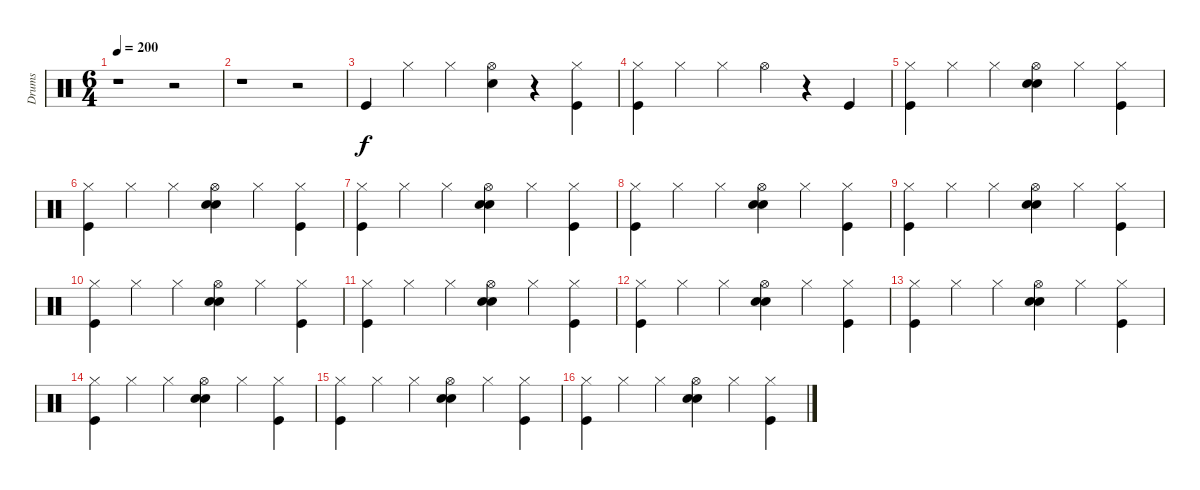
\track ("Drums" "Drums") {instrument percussion}
\staff {score}
\articulation defaults
\ts (6 4)
\tempo 200
\clef neutral
\ks c
r.1{dy f} r.2 |
r.1 r.2 |
"Kick (hit)".4 "Hi-Hat (closed)".4 "Hi-Hat (closed)".4 ("Snare (hit) 2" "Hi-Hat (open)").4 r.4 ("Kick (hit)" "Hi-Hat (closed)").4 |
("Kick (hit)" "Hi-Hat (closed)").4 "Hi-Hat (closed)".4 "Hi-Hat (closed)".4 "Hi-Hat (open)".4 r.4 "Kick (hit)".4 |
("Hi-Hat (closed)" "Kick (hit)").4 "Hi-Hat (closed)".4 "Hi-Hat (closed)".4 ("Electric Snare (hit)" "Hand Clap (hit)" "Hi-Hat (open)").4 "Hi-Hat (closed)".4 ("Kick (hit)" "Hi-Hat (closed)").4 |
("Hi-Hat (closed)" "Kick (hit)").4 "Hi-Hat (closed)".4 "Hi-Hat (closed)".4 ("Electric Snare (hit)" "Hand Clap (hit)" "Hi-Hat (open)").4 "Hi-Hat (closed)".4 ("Kick (hit)" "Hi-Hat (closed)").4 |
("Hi-Hat (closed)" "Kick (hit)").4 "Hi-Hat (closed)".4 "Hi-Hat (closed)".4 ("Electric Snare (hit)" "Hand Clap (hit)" "Hi-Hat (open)").4 "Hi-Hat (closed)".4 ("Kick (hit)" "Hi-Hat (closed)").4 |
("Hi-Hat (closed)" "Kick (hit)").4 "Hi-Hat (closed)".4 "Hi-Hat (closed)".4 ("Electric Snare (hit)" "Hand Clap (hit)" "Hi-Hat (open)").4 "Hi-Hat (closed)".4 ("Kick (hit)" "Hi-Hat (closed)").4 |
("Hi-Hat (closed)" "Kick (hit)").4 "Hi-Hat (closed)".4 "Hi-Hat (closed)".4 ("Electric Snare (hit)" "Hand Clap (hit)" "Hi-Hat (open)").4 "Hi-Hat (closed)".4 ("Kick (hit)" "Hi-Hat (closed)").4 |
("Hi-Hat (closed)" "Kick (hit)").4 "Hi-Hat (closed)".4 "Hi-Hat (closed)".4 ("Electric Snare (hit)" "Hand Clap (hit)" "Hi-Hat (open)").4 "Hi-Hat (closed)".4 ("Kick (hit)" "Hi-Hat (closed)").4 |
("Hi-Hat (closed)" "Kick (hit)").4 "Hi-Hat (closed)".4 "Hi-Hat (closed)".4 ("Electric Snare (hit)" "Hand Clap (hit)" "Hi-Hat (open)").4 "Hi-Hat (closed)".4 ("Kick (hit)" "Hi-Hat (closed)").4 |
("Hi-Hat (closed)" "Kick (hit)").4 "Hi-Hat (closed)".4 "Hi-Hat (closed)".4 ("Electric Snare (hit)" "Hand Clap (hit)" "Hi-Hat (open)").4 "Hi-Hat (closed)".4 ("Kick (hit)" "Hi-Hat (closed)").4 |
("Hi-Hat (closed)" "Kick (hit)").4 "Hi-Hat (closed)".4 "Hi-Hat (closed)".4 ("Electric Snare (hit)" "Hand Clap (hit)" "Hi-Hat (open)").4 "Hi-Hat (closed)".4 ("Kick (hit)" "Hi-Hat (closed)").4 |
("Hi-Hat (closed)" "Kick (hit)").4 "Hi-Hat (closed)".4 "Hi-Hat (closed)".4 ("Electric Snare (hit)" "Hand Clap (hit)" "Hi-Hat (open)").4 "Hi-Hat (closed)".4 ("Kick (hit)" "Hi-Hat (closed)").4 |
("Hi-Hat (closed)" "Kick (hit)").4 "Hi-Hat (closed)".4 "Hi-Hat (closed)".4 ("Electric Snare (hit)" "Hand Clap (hit)" "Hi-Hat (open)").4 "Hi-Hat (closed)".4 ("Kick (hit)" "Hi-Hat (closed)").4 |
("Hi-Hat (closed)" "Kick (hit)").4 "Hi-Hat (closed)".4 "Hi-Hat (closed)".4 ("Electric Snare (hit)" "Hand Clap (hit)" "Hi-Hat (open)").4 "Hi-Hat (closed)".4 ("Kick (hit)" "Hi-Hat (closed)").4
